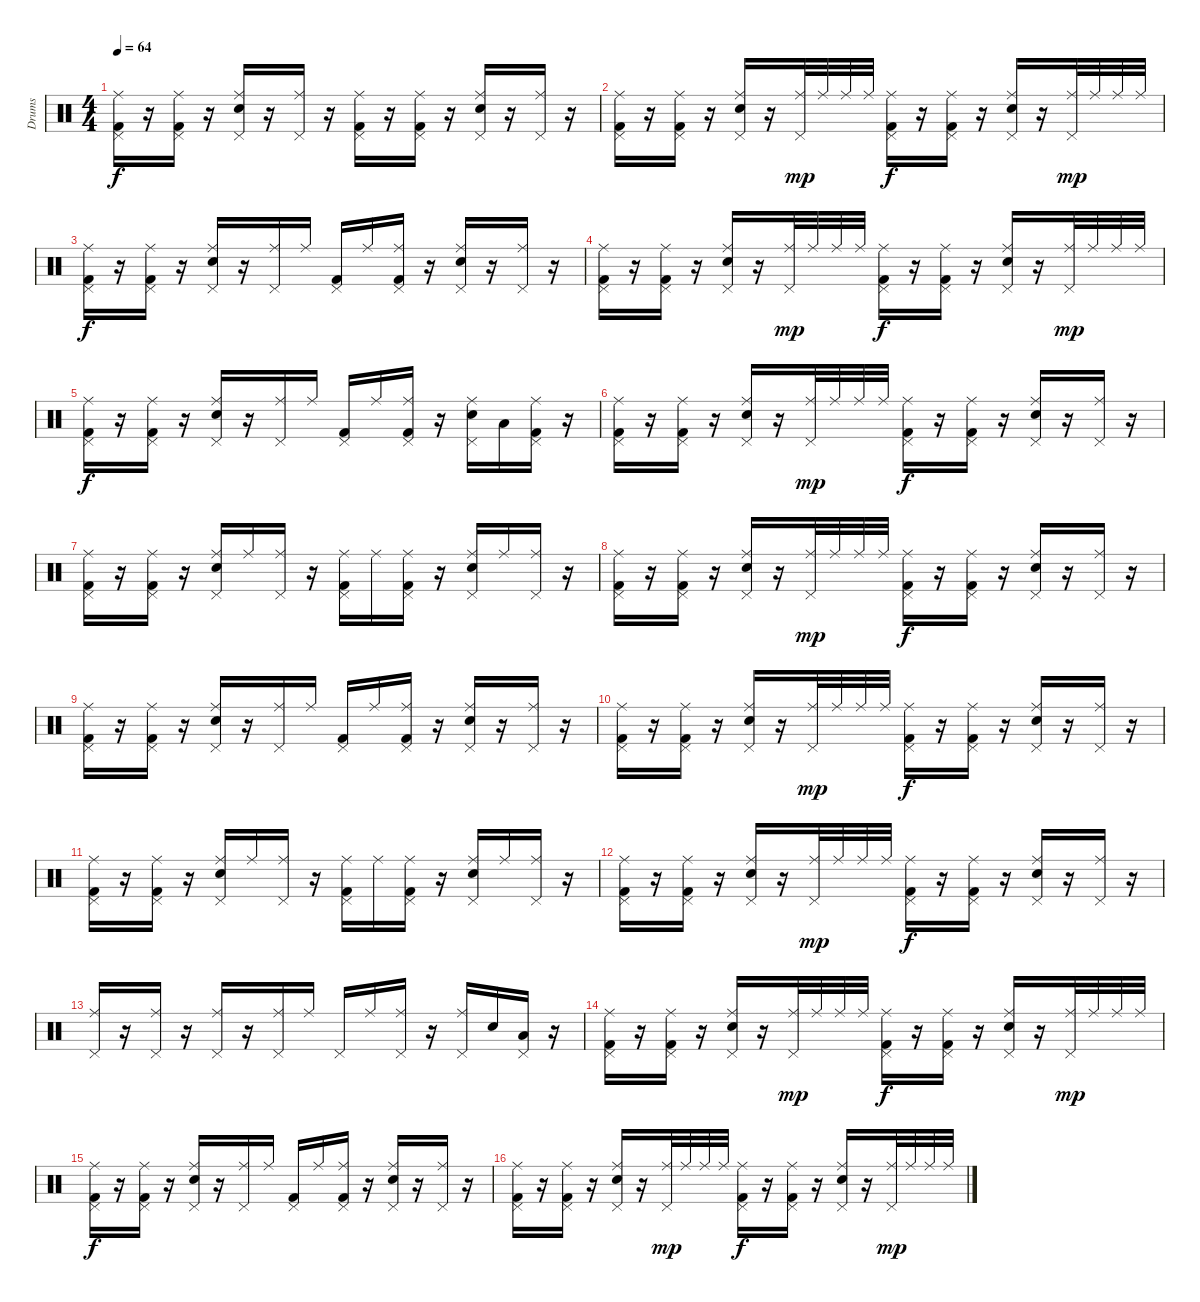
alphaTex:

\track ("Drums" "Drums") {instrument percussion}
\staff {score}
\articulation defaults
\ts (4 4)
\tempo 64
\clef neutral
\ks c
("Ride (middle)" "Pedal Hi-Hat (hit)" "Kick (hit) 2").16{dy f} r.16 ("Ride (middle)" "Pedal Hi-Hat (hit)" "Kick (hit) 2").16 r.16 ("Ride (middle)" "Pedal Hi-Hat (hit)" "Snare (hit) 2").16 r.16 ("Ride (middle)" "Pedal Hi-Hat (hit)").16 r.16 ("Ride (middle)" "Pedal Hi-Hat (hit)" "Kick (hit) 2").16 r.16 ("Ride (middle)" "Pedal Hi-Hat (hit)" "Kick (hit) 2").16 r.16 ("Ride (middle)" "Pedal Hi-Hat (hit)" "Snare (hit) 2").16 r.16 ("Ride (middle)" "Pedal Hi-Hat (hit)").16 r.16 |
("Ride (middle)" "Pedal Hi-Hat (hit)" "Kick (hit) 2").16 r.16 ("Ride (middle)" "Pedal Hi-Hat (hit)" "Kick (hit) 2").16 r.16 ("Ride (middle)" "Pedal Hi-Hat (hit)" "Snare (hit) 2").16 r.16 ("Ride (middle)" "Pedal Hi-Hat (hit)").32{dy mp} "Ride (middle)".32 "Ride (middle)".32 "Ride (middle)".32 ("Ride (middle)" "Pedal Hi-Hat (hit)" "Kick (hit) 2").16{dy f} r.16 ("Ride (middle)" "Pedal Hi-Hat (hit)" "Kick (hit) 2").16 r.16 ("Ride (middle)" "Pedal Hi-Hat (hit)" "Snare (hit) 2").16 r.16 ("Ride (middle)" "Pedal Hi-Hat (hit)").32{dy mp} "Ride (middle)".32 "Ride (middle)".32 "Ride (middle)".32 |
("Ride (middle)" "Pedal Hi-Hat (hit)" "Kick (hit) 2").16{dy f} r.16 ("Ride (middle)" "Pedal Hi-Hat (hit)" "Kick (hit) 2").16 r.16 ("Ride (middle)" "Pedal Hi-Hat (hit)" "Snare (hit) 2").16 r.16 ("Ride (middle)" "Pedal Hi-Hat (hit)").16 "Ride (middle)".16 ("Pedal Hi-Hat (hit)" "Kick (hit) 2").16 "Ride (middle)".16 ("Ride (middle)" "Pedal Hi-Hat (hit)" "Kick (hit) 2").16 r.16 ("Ride (middle)" "Pedal Hi-Hat (hit)" "Snare (hit) 2").16 r.16 ("Ride (middle)" "Pedal Hi-Hat (hit)").16 r.16 |
("Ride (middle)" "Pedal Hi-Hat (hit)" "Kick (hit) 2").16 r.16 ("Ride (middle)" "Pedal Hi-Hat (hit)" "Kick (hit) 2").16 r.16 ("Ride (middle)" "Pedal Hi-Hat (hit)" "Snare (hit) 2").16 r.16 ("Ride (middle)" "Pedal Hi-Hat (hit)").32{dy mp} "Ride (middle)".32 "Ride (middle)".32 "Ride (middle)".32 ("Ride (middle)" "Pedal Hi-Hat (hit)" "Kick (hit) 2").16{dy f} r.16 ("Ride (middle)" "Pedal Hi-Hat (hit)" "Kick (hit) 2").16 r.16 ("Ride (middle)" "Pedal Hi-Hat (hit)" "Snare (hit) 2").16 r.16 ("Ride (middle)" "Pedal Hi-Hat (hit)").32{dy mp} "Ride (middle)".32 "Ride (middle)".32 "Ride (middle)".32 |
("Ride (middle)" "Pedal Hi-Hat (hit)" "Kick (hit) 2").16{dy f} r.16 ("Ride (middle)" "Pedal Hi-Hat (hit)" "Kick (hit) 2").16 r.16 ("Ride (middle)" "Pedal Hi-Hat (hit)" "Snare (hit) 2").16 r.16 ("Ride (middle)" "Pedal Hi-Hat (hit)").16 "Ride (middle)".16 ("Pedal Hi-Hat (hit)" "Kick (hit) 2").16 "Ride (middle)".16 ("Ride (middle)" "Pedal Hi-Hat (hit)" "Kick (hit) 2").16 r.16 ("Ride (middle)" "Pedal Hi-Hat (hit)" "Snare (hit) 2").16 "Low Tom (hit)".16 ("Ride (middle)" "Pedal Hi-Hat (hit)" "Kick (hit) 2").16 r.16 |
("Ride (middle)" "Pedal Hi-Hat (hit)" "Kick (hit) 2").16 r.16 ("Ride (middle)" "Pedal Hi-Hat (hit)" "Kick (hit) 2").16 r.16 ("Ride (middle)" "Pedal Hi-Hat (hit)" "Snare (hit) 2").16 r.16 ("Ride (middle)" "Pedal Hi-Hat (hit)").32{dy mp} "Ride (middle)".32 "Ride (middle)".32 "Ride (middle)".32 ("Ride (middle)" "Pedal Hi-Hat (hit)" "Kick (hit) 2").16{dy f} r.16 ("Ride (middle)" "Pedal Hi-Hat (hit)" "Kick (hit) 2").16 r.16 ("Ride (middle)" "Pedal Hi-Hat (hit)" "Snare (hit) 2").16 r.16 ("Ride (middle)" "Pedal Hi-Hat (hit)").16 r.16 |
("Ride (middle)" "Pedal Hi-Hat (hit)" "Kick (hit) 2").16 r.16 ("Ride (middle)" "Pedal Hi-Hat (hit)" "Kick (hit) 2").16 r.16 ("Ride (middle)" "Pedal Hi-Hat (hit)" "Snare (hit) 2").16 "Ride (middle)".16 ("Ride (middle)" "Pedal Hi-Hat (hit)").16 r.16 ("Ride (middle)" "Pedal Hi-Hat (hit)" "Kick (hit) 2").16 "Ride (middle)".16 ("Ride (middle)" "Pedal Hi-Hat (hit)" "Kick (hit) 2").16 r.16 ("Ride (middle)" "Pedal Hi-Hat (hit)" "Snare (hit) 2").16 "Ride (middle)".16 ("Ride (middle)" "Pedal Hi-Hat (hit)").16 r.16 |
("Ride (middle)" "Pedal Hi-Hat (hit)" "Kick (hit) 2").16 r.16 ("Ride (middle)" "Pedal Hi-Hat (hit)" "Kick (hit) 2").16 r.16 ("Ride (middle)" "Pedal Hi-Hat (hit)" "Snare (hit) 2").16 r.16 ("Ride (middle)" "Pedal Hi-Hat (hit)").32{dy mp} "Ride (middle)".32 "Ride (middle)".32 "Ride (middle)".32 ("Ride (middle)" "Pedal Hi-Hat (hit)" "Kick (hit) 2").16{dy f} r.16 ("Ride (middle)" "Pedal Hi-Hat (hit)" "Kick (hit) 2").16 r.16 ("Ride (middle)" "Pedal Hi-Hat (hit)" "Snare (hit) 2").16 r.16 ("Ride (middle)" "Pedal Hi-Hat (hit)").16 r.16 |
("Ride (middle)" "Pedal Hi-Hat (hit)" "Kick (hit) 2").16 r.16 ("Ride (middle)" "Pedal Hi-Hat (hit)" "Kick (hit) 2").16 r.16 ("Ride (middle)" "Pedal Hi-Hat (hit)" "Snare (hit) 2").16 r.16 ("Ride (middle)" "Pedal Hi-Hat (hit)").16 "Ride (middle)".16 ("Pedal Hi-Hat (hit)" "Kick (hit) 2").16 "Ride (middle)".16 ("Ride (middle)" "Pedal Hi-Hat (hit)" "Kick (hit) 2").16 r.16 ("Ride (middle)" "Pedal Hi-Hat (hit)" "Snare (hit) 2").16 r.16 ("Ride (middle)" "Pedal Hi-Hat (hit)").16 r.16 |
("Ride (middle)" "Pedal Hi-Hat (hit)" "Kick (hit) 2").16 r.16 ("Ride (middle)" "Pedal Hi-Hat (hit)" "Kick (hit) 2").16 r.16 ("Ride (middle)" "Pedal Hi-Hat (hit)" "Snare (hit) 2").16 r.16 ("Ride (middle)" "Pedal Hi-Hat (hit)").32{dy mp} "Ride (middle)".32 "Ride (middle)".32 "Ride (middle)".32 ("Ride (middle)" "Pedal Hi-Hat (hit)" "Kick (hit) 2").16{dy f} r.16 ("Ride (middle)" "Pedal Hi-Hat (hit)" "Kick (hit) 2").16 r.16 ("Ride (middle)" "Pedal Hi-Hat (hit)" "Snare (hit) 2").16 r.16 ("Ride (middle)" "Pedal Hi-Hat (hit)").16 r.16 |
("Ride (middle)" "Pedal Hi-Hat (hit)" "Kick (hit) 2").16 r.16 ("Ride (middle)" "Pedal Hi-Hat (hit)" "Kick (hit) 2").16 r.16 ("Ride (middle)" "Pedal Hi-Hat (hit)" "Snare (hit) 2").16 "Ride (middle)".16 ("Ride (middle)" "Pedal Hi-Hat (hit)").16 r.16 ("Ride (middle)" "Pedal Hi-Hat (hit)" "Kick (hit) 2").16 "Ride (middle)".16 ("Ride (middle)" "Pedal Hi-Hat (hit)" "Kick (hit) 2").16 r.16 ("Ride (middle)" "Pedal Hi-Hat (hit)" "Snare (hit) 2").16 "Ride (middle)".16 ("Ride (middle)" "Pedal Hi-Hat (hit)").16 r.16 |
("Ride (middle)" "Pedal Hi-Hat (hit)" "Kick (hit) 2").16 r.16 ("Ride (middle)" "Pedal Hi-Hat (hit)" "Kick (hit) 2").16 r.16 ("Ride (middle)" "Pedal Hi-Hat (hit)" "Snare (hit) 2").16 r.16 ("Ride (middle)" "Pedal Hi-Hat (hit)").32{dy mp} "Ride (middle)".32 "Ride (middle)".32 "Ride (middle)".32 ("Ride (middle)" "Pedal Hi-Hat (hit)" "Kick (hit) 2").16{dy f} r.16 ("Ride (middle)" "Pedal Hi-Hat (hit)" "Kick (hit) 2").16 r.16 ("Ride (middle)" "Pedal Hi-Hat (hit)" "Snare (hit) 2").16 r.16 ("Ride (middle)" "Pedal Hi-Hat (hit)").16 r.16 |
("Ride (middle)" "Pedal Hi-Hat (hit)").16 r.16 ("Ride (middle)" "Pedal Hi-Hat (hit)").16 r.16 ("Ride (middle)" "Pedal Hi-Hat (hit)").16 r.16 ("Ride (middle)" "Pedal Hi-Hat (hit)").16 "Ride (middle)".16 "Pedal Hi-Hat (hit)".16 "Ride (middle)".16 ("Ride (middle)" "Pedal Hi-Hat (hit)").16 r.16 ("Ride (middle)" "Pedal Hi-Hat (hit)").16 "Snare (hit) 2".16 ("Pedal Hi-Hat (hit)" "Low Tom (hit)").16 r.16 |
("Ride (middle)" "Pedal Hi-Hat (hit)" "Kick (hit) 2").16 r.16 ("Ride (middle)" "Pedal Hi-Hat (hit)" "Kick (hit) 2").16 r.16 ("Ride (middle)" "Pedal Hi-Hat (hit)" "Snare (hit) 2").16 r.16 ("Ride (middle)" "Pedal Hi-Hat (hit)").32{dy mp} "Ride (middle)".32 "Ride (middle)".32 "Ride (middle)".32 ("Ride (middle)" "Pedal Hi-Hat (hit)" "Kick (hit) 2").16{dy f} r.16 ("Ride (middle)" "Pedal Hi-Hat (hit)" "Kick (hit) 2").16 r.16 ("Ride (middle)" "Pedal Hi-Hat (hit)" "Snare (hit) 2").16 r.16 ("Ride (middle)" "Pedal Hi-Hat (hit)").32{dy mp} "Ride (middle)".32 "Ride (middle)".32 "Ride (middle)".32 |
("Ride (middle)" "Pedal Hi-Hat (hit)" "Kick (hit) 2").16{dy f} r.16 ("Ride (middle)" "Pedal Hi-Hat (hit)" "Kick (hit) 2").16 r.16 ("Ride (middle)" "Pedal Hi-Hat (hit)" "Snare (hit) 2").16 r.16 ("Ride (middle)" "Pedal Hi-Hat (hit)").16 "Ride (middle)".16 ("Pedal Hi-Hat (hit)" "Kick (hit) 2").16 "Ride (middle)".16 ("Ride (middle)" "Pedal Hi-Hat (hit)" "Kick (hit) 2").16 r.16 ("Ride (middle)" "Pedal Hi-Hat (hit)" "Snare (hit) 2").16 r.16 ("Ride (middle)" "Pedal Hi-Hat (hit)").16 r.16 |
("Ride (middle)" "Pedal Hi-Hat (hit)" "Kick (hit) 2").16 r.16 ("Ride (middle)" "Pedal Hi-Hat (hit)" "Kick (hit) 2").16 r.16 ("Ride (middle)" "Pedal Hi-Hat (hit)" "Snare (hit) 2").16 r.16 ("Ride (middle)" "Pedal Hi-Hat (hit)").32{dy mp} "Ride (middle)".32 "Ride (middle)".32 "Ride (middle)".32 ("Ride (middle)" "Pedal Hi-Hat (hit)" "Kick (hit) 2").16{dy f} r.16 ("Ride (middle)" "Pedal Hi-Hat (hit)" "Kick (hit) 2").16 r.16 ("Ride (middle)" "Pedal Hi-Hat (hit)" "Snare (hit) 2").16 r.16 ("Ride (middle)" "Pedal Hi-Hat (hit)").32{dy mp} "Ride (middle)".32 "Ride (middle)".32 "Ride (middle)".32
